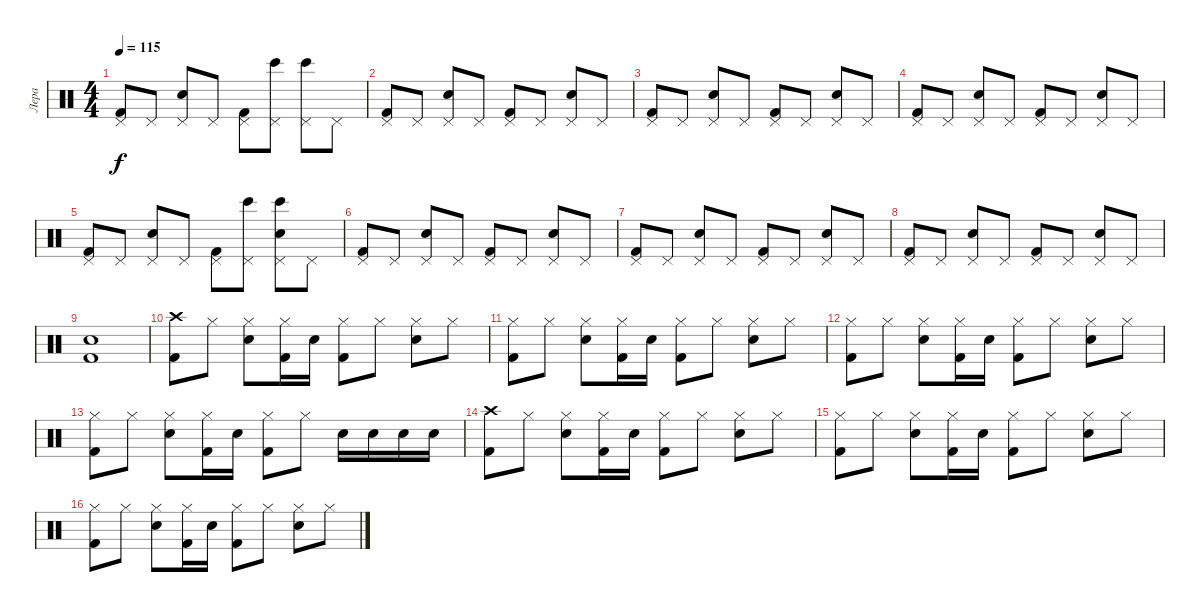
\track ("Лера" "Лера") {instrument percussion}
\staff {score}
\articulation defaults
\ts (4 4)
\tempo 115
\clef neutral
\ks c
("Pedal Hi-Hat (hit)" "Kick (hit) 2").8{dy f} "Pedal Hi-Hat (hit)".8 ("Pedal Hi-Hat (hit)" "Electric Snare (hit)").8 "Pedal Hi-Hat (hit)".8 ("Pedal Hi-Hat (hit)" "Kick (hit) 2").8 ("Pedal Hi-Hat (hit)" "Bongo High (hit)").8 ("Pedal Hi-Hat (hit)" "Bongo High (hit)").8 "Pedal Hi-Hat (hit)".8 |
("Pedal Hi-Hat (hit)" "Kick (hit) 2").8 "Pedal Hi-Hat (hit)".8 ("Pedal Hi-Hat (hit)" "Electric Snare (hit)").8 "Pedal Hi-Hat (hit)".8 ("Pedal Hi-Hat (hit)" "Kick (hit) 2").8 "Pedal Hi-Hat (hit)".8 ("Pedal Hi-Hat (hit)" "Electric Snare (hit)").8 "Pedal Hi-Hat (hit)".8 |
("Pedal Hi-Hat (hit)" "Kick (hit) 2").8 "Pedal Hi-Hat (hit)".8 ("Pedal Hi-Hat (hit)" "Electric Snare (hit)").8 "Pedal Hi-Hat (hit)".8 ("Pedal Hi-Hat (hit)" "Kick (hit) 2").8 "Pedal Hi-Hat (hit)".8 ("Pedal Hi-Hat (hit)" "Electric Snare (hit)").8 "Pedal Hi-Hat (hit)".8 |
("Pedal Hi-Hat (hit)" "Kick (hit) 2").8 "Pedal Hi-Hat (hit)".8 ("Pedal Hi-Hat (hit)" "Electric Snare (hit)").8 "Pedal Hi-Hat (hit)".8 ("Pedal Hi-Hat (hit)" "Kick (hit) 2").8 "Pedal Hi-Hat (hit)".8 ("Pedal Hi-Hat (hit)" "Electric Snare (hit)").8 "Pedal Hi-Hat (hit)".8 |
("Pedal Hi-Hat (hit)" "Kick (hit) 2").8 "Pedal Hi-Hat (hit)".8 ("Pedal Hi-Hat (hit)" "Electric Snare (hit)").8 "Pedal Hi-Hat (hit)".8 ("Pedal Hi-Hat (hit)" "Kick (hit) 2").8 ("Pedal Hi-Hat (hit)" "Bongo High (hit)").8 ("Pedal Hi-Hat (hit)" "Electric Snare (hit)" "Bongo High (hit)").8 "Pedal Hi-Hat (hit)".8 |
("Pedal Hi-Hat (hit)" "Kick (hit) 2").8 "Pedal Hi-Hat (hit)".8 ("Pedal Hi-Hat (hit)" "Electric Snare (hit)").8 "Pedal Hi-Hat (hit)".8 ("Pedal Hi-Hat (hit)" "Kick (hit) 2").8 "Pedal Hi-Hat (hit)".8 ("Pedal Hi-Hat (hit)" "Electric Snare (hit)").8 "Pedal Hi-Hat (hit)".8 |
("Pedal Hi-Hat (hit)" "Kick (hit) 2").8 "Pedal Hi-Hat (hit)".8 ("Pedal Hi-Hat (hit)" "Electric Snare (hit)").8 "Pedal Hi-Hat (hit)".8 ("Pedal Hi-Hat (hit)" "Kick (hit) 2").8 "Pedal Hi-Hat (hit)".8 ("Pedal Hi-Hat (hit)" "Electric Snare (hit)").8 "Pedal Hi-Hat (hit)".8 |
("Pedal Hi-Hat (hit)" "Kick (hit) 2").8 "Pedal Hi-Hat (hit)".8 ("Pedal Hi-Hat (hit)" "Electric Snare (hit)").8 "Pedal Hi-Hat (hit)".8 ("Pedal Hi-Hat (hit)" "Kick (hit) 2").8 "Pedal Hi-Hat (hit)".8 ("Pedal Hi-Hat (hit)" "Electric Snare (hit)").8 "Pedal Hi-Hat (hit)".8 |
("Electric Snare (hit)" "Kick (hit) 2").1 |
("Crash high (hit)" "Kick (hit) 2").8 "Hi-Hat (closed)".8 ("Hi-Hat (closed)" "Electric Snare (hit)").8 ("Hi-Hat (closed)" "Kick (hit) 2").16 "Electric Snare (hit)".16 ("Hi-Hat (closed)" "Kick (hit) 2").8 "Hi-Hat (closed)".8 ("Hi-Hat (closed)" "Electric Snare (hit)").8 "Hi-Hat (closed)".8 |
("Hi-Hat (closed)" "Kick (hit) 2").8 "Hi-Hat (closed)".8 ("Hi-Hat (closed)" "Electric Snare (hit)").8 ("Hi-Hat (closed)" "Kick (hit) 2").16 "Electric Snare (hit)".16 ("Hi-Hat (closed)" "Kick (hit) 2").8 "Hi-Hat (closed)".8 ("Hi-Hat (closed)" "Electric Snare (hit)").8 "Hi-Hat (closed)".8 |
("Hi-Hat (closed)" "Kick (hit) 2").8 "Hi-Hat (closed)".8 ("Hi-Hat (closed)" "Electric Snare (hit)").8 ("Hi-Hat (closed)" "Kick (hit) 2").16 "Electric Snare (hit)".16 ("Hi-Hat (closed)" "Kick (hit) 2").8 "Hi-Hat (closed)".8 ("Hi-Hat (closed)" "Electric Snare (hit)").8 "Hi-Hat (closed)".8 |
("Hi-Hat (closed)" "Kick (hit) 2").8 "Hi-Hat (closed)".8 ("Hi-Hat (closed)" "Electric Snare (hit)").8 ("Hi-Hat (closed)" "Kick (hit) 2").16 "Electric Snare (hit)".16 ("Hi-Hat (closed)" "Kick (hit) 2").8 "Hi-Hat (closed)".8 "Electric Snare (hit)".16 "Electric Snare (hit)".16 "Electric Snare (hit)".16 "Electric Snare (hit)".16 |
("Crash high (hit)" "Kick (hit) 2").8 "Hi-Hat (closed)".8 ("Hi-Hat (closed)" "Electric Snare (hit)").8 ("Hi-Hat (closed)" "Kick (hit) 2").16 "Electric Snare (hit)".16 ("Hi-Hat (closed)" "Kick (hit) 2").8 "Hi-Hat (closed)".8 ("Hi-Hat (closed)" "Electric Snare (hit)").8 "Hi-Hat (closed)".8 |
("Hi-Hat (closed)" "Kick (hit) 2").8 "Hi-Hat (closed)".8 ("Hi-Hat (closed)" "Electric Snare (hit)").8 ("Hi-Hat (closed)" "Kick (hit) 2").16 "Electric Snare (hit)".16 ("Hi-Hat (closed)" "Kick (hit) 2").8 "Hi-Hat (closed)".8 ("Hi-Hat (closed)" "Electric Snare (hit)").8 "Hi-Hat (closed)".8 |
("Hi-Hat (closed)" "Kick (hit) 2").8 "Hi-Hat (closed)".8 ("Hi-Hat (closed)" "Electric Snare (hit)").8 ("Hi-Hat (closed)" "Kick (hit) 2").16 "Electric Snare (hit)".16 ("Hi-Hat (closed)" "Kick (hit) 2").8 "Hi-Hat (closed)".8 ("Hi-Hat (closed)" "Electric Snare (hit)").8 "Hi-Hat (closed)".8
